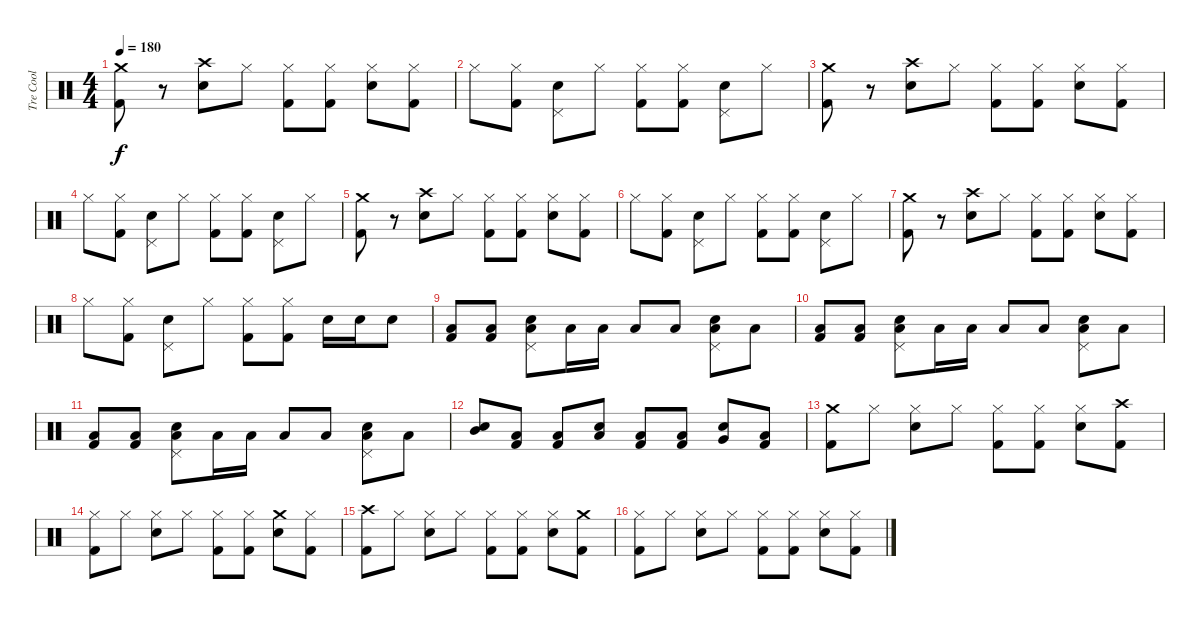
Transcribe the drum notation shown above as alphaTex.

\track ("Tre Cool" "Tre Cool") {instrument percussion}
\staff {score}
\articulation defaults
\ts (4 4)
\tempo 180
\clef neutral
\ks c
("Kick (hit) 2" "Crash medium (hit)").8{dy f} r.8 ("Snare (hit) 2" "Crash high (hit)").8 "Hi-Hat (closed)".8 ("Kick (hit) 2" "Hi-Hat (closed)").8 ("Kick (hit) 2" "Hi-Hat (closed)").8 ("Snare (hit) 2" "Hi-Hat (closed)").8 ("Kick (hit) 2" "Hi-Hat (closed)").8 |
"Hi-Hat (closed)".8 ("Kick (hit) 2" "Hi-Hat (closed)").8 ("Snare (hit) 2" "Pedal Hi-Hat (hit)").8 "Hi-Hat (closed)".8 ("Kick (hit) 2" "Hi-Hat (closed)").8 ("Kick (hit) 2" "Hi-Hat (closed)").8 ("Snare (hit) 2" "Pedal Hi-Hat (hit)").8 "Hi-Hat (closed)".8 |
("Kick (hit) 2" "Crash medium (hit)").8 r.8 ("Snare (hit) 2" "Crash high (hit)").8 "Hi-Hat (closed)".8 ("Kick (hit) 2" "Hi-Hat (closed)").8 ("Kick (hit) 2" "Hi-Hat (closed)").8 ("Snare (hit) 2" "Hi-Hat (closed)").8 ("Kick (hit) 2" "Hi-Hat (closed)").8 |
"Hi-Hat (closed)".8 ("Kick (hit) 2" "Hi-Hat (closed)").8 ("Snare (hit) 2" "Pedal Hi-Hat (hit)").8 "Hi-Hat (closed)".8 ("Kick (hit) 2" "Hi-Hat (closed)").8 ("Kick (hit) 2" "Hi-Hat (closed)").8 ("Snare (hit) 2" "Pedal Hi-Hat (hit)").8 "Hi-Hat (closed)".8 |
("Kick (hit) 2" "Crash medium (hit)").8 r.8 ("Snare (hit) 2" "Crash high (hit)").8 "Hi-Hat (closed)".8 ("Kick (hit) 2" "Hi-Hat (closed)").8 ("Kick (hit) 2" "Hi-Hat (closed)").8 ("Snare (hit) 2" "Hi-Hat (closed)").8 ("Kick (hit) 2" "Hi-Hat (closed)").8 |
"Hi-Hat (closed)".8 ("Kick (hit) 2" "Hi-Hat (closed)").8 ("Snare (hit) 2" "Pedal Hi-Hat (hit)").8 "Hi-Hat (closed)".8 ("Kick (hit) 2" "Hi-Hat (closed)").8 ("Kick (hit) 2" "Hi-Hat (closed)").8 ("Snare (hit) 2" "Pedal Hi-Hat (hit)").8 "Hi-Hat (closed)".8 |
("Kick (hit) 2" "Crash medium (hit)").8 r.8 ("Snare (hit) 2" "Crash high (hit)").8 "Hi-Hat (closed)".8 ("Kick (hit) 2" "Hi-Hat (closed)").8 ("Kick (hit) 2" "Hi-Hat (closed)").8 ("Snare (hit) 2" "Hi-Hat (closed)").8 ("Kick (hit) 2" "Hi-Hat (closed)").8 |
"Hi-Hat (closed)".8 ("Kick (hit) 2" "Hi-Hat (closed)").8 ("Snare (hit) 2" "Pedal Hi-Hat (hit)").8 "Hi-Hat (closed)".8 ("Kick (hit) 2" "Hi-Hat (closed)").8 ("Kick (hit) 2" "Hi-Hat (closed)").8 "Snare (hit) 2".16 "Snare (hit) 2".16 "Snare (hit) 2".8 |
("Kick (hit) 2" "Low Floor Tom (hit)").8 ("Kick (hit) 2" "Low Floor Tom (hit)").8 ("Snare (hit) 2" "Low Floor Tom (hit)" "Pedal Hi-Hat (hit)").8 "Low Floor Tom (hit)".16 "Low Floor Tom (hit)".16 "Low Floor Tom (hit)".8 "Low Floor Tom (hit)".8 ("Snare (hit) 2" "Low Floor Tom (hit)" "Pedal Hi-Hat (hit)").8 "Low Floor Tom (hit)".8 |
("Kick (hit) 2" "Low Floor Tom (hit)").8 ("Kick (hit) 2" "Low Floor Tom (hit)").8 ("Snare (hit) 2" "Low Floor Tom (hit)" "Pedal Hi-Hat (hit)").8 "Low Floor Tom (hit)".16 "Low Floor Tom (hit)".16 "Low Floor Tom (hit)".8 "Low Floor Tom (hit)".8 ("Snare (hit) 2" "Low Floor Tom (hit)" "Pedal Hi-Hat (hit)").8 "Low Floor Tom (hit)".8 |
("Kick (hit) 2" "Low Floor Tom (hit)").8 ("Kick (hit) 2" "Low Floor Tom (hit)").8 ("Snare (hit) 2" "Low Floor Tom (hit)" "Pedal Hi-Hat (hit)").8 "Low Floor Tom (hit)".16 "Low Floor Tom (hit)".16 "Low Floor Tom (hit)".8 "Low Floor Tom (hit)".8 ("Snare (hit) 2" "Low Floor Tom (hit)" "Pedal Hi-Hat (hit)").8 "Low Floor Tom (hit)".8 |
("Mid Tom (hit)" "Snare (hit) 2").8 ("Low Floor Tom (hit)" "Kick (hit) 2").8 ("Low Floor Tom (hit)" "Kick (hit) 2").8 ("Low Tom (hit)" "Snare (hit) 2").8 ("Low Floor Tom (hit)" "Kick (hit) 2").8 ("Low Floor Tom (hit)" "Kick (hit) 2").8 ("Very Low Tom (hit)" "Snare (hit) 2").8 ("Low Floor Tom (hit)" "Kick (hit) 2").8 |
("Kick (hit) 2" "Crash medium (hit)").8 "Hi-Hat (closed)".8 ("Snare (hit) 2" "Hi-Hat (closed)").8 "Hi-Hat (closed)".8 ("Kick (hit) 2" "Hi-Hat (closed)").8 ("Kick (hit) 2" "Hi-Hat (closed)").8 ("Snare (hit) 2" "Hi-Hat (closed)").8 ("Kick (hit) 2" "Crash high (hit)").8 |
("Kick (hit) 2" "Hi-Hat (closed)").8 "Hi-Hat (closed)".8 ("Snare (hit) 2" "Hi-Hat (closed)").8 "Hi-Hat (closed)".8 ("Kick (hit) 2" "Hi-Hat (closed)").8 ("Kick (hit) 2" "Hi-Hat (closed)").8 ("Snare (hit) 2" "Crash medium (hit)").8 ("Kick (hit) 2" "Hi-Hat (closed)").8 |
("Kick (hit) 2" "Crash high (hit)").8 "Hi-Hat (closed)".8 ("Snare (hit) 2" "Hi-Hat (closed)").8 "Hi-Hat (closed)".8 ("Kick (hit) 2" "Hi-Hat (closed)").8 ("Kick (hit) 2" "Hi-Hat (closed)").8 ("Snare (hit) 2" "Hi-Hat (closed)").8 ("Kick (hit) 2" "Crash medium (hit)").8 |
("Kick (hit) 2" "Hi-Hat (closed)").8 "Hi-Hat (closed)".8 ("Snare (hit) 2" "Hi-Hat (closed)").8 "Hi-Hat (closed)".8 ("Kick (hit) 2" "Hi-Hat (closed)").8 ("Kick (hit) 2" "Hi-Hat (closed)").8 ("Snare (hit) 2" "Hi-Hat (closed)").8 ("Kick (hit) 2" "Hi-Hat (closed)").8
